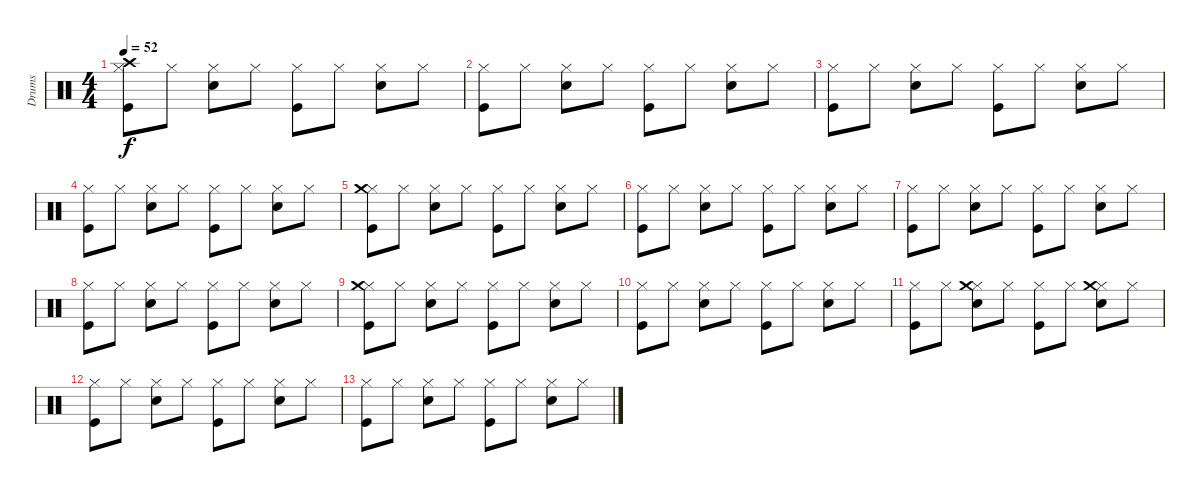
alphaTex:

\track ("Drums" "Drums") {instrument percussion}
\staff {score}
\articulation defaults
\ts (4 4)
\tempo 52
\clef neutral
\ks c
("Kick (hit)" "Hi-Hat (closed)" "Crash high (hit)").8{dy f} "Hi-Hat (closed)".8 ("Snare (hit) 2" "Hi-Hat (closed)").8 "Hi-Hat (closed)".8 ("Kick (hit)" "Hi-Hat (closed)").8 "Hi-Hat (closed)".8 ("Snare (hit) 2" "Hi-Hat (closed)").8 "Hi-Hat (closed)".8 |
("Kick (hit)" "Hi-Hat (closed)").8 "Hi-Hat (closed)".8 ("Snare (hit) 2" "Hi-Hat (closed)").8 "Hi-Hat (closed)".8 ("Kick (hit)" "Hi-Hat (closed)").8 "Hi-Hat (closed)".8 ("Snare (hit) 2" "Hi-Hat (closed)").8 "Hi-Hat (closed)".8 |
("Kick (hit)" "Hi-Hat (closed)").8 "Hi-Hat (closed)".8 ("Snare (hit) 2" "Hi-Hat (closed)").8 "Hi-Hat (closed)".8 ("Kick (hit)" "Hi-Hat (closed)").8 "Hi-Hat (closed)".8 ("Snare (hit) 2" "Hi-Hat (closed)").8 "Hi-Hat (closed)".8 |
("Kick (hit)" "Hi-Hat (closed)").8 "Hi-Hat (closed)".8 ("Snare (hit) 2" "Hi-Hat (closed)").8 "Hi-Hat (closed)".8 ("Kick (hit)" "Hi-Hat (closed)").8 "Hi-Hat (closed)".8 ("Snare (hit) 2" "Hi-Hat (closed)").8 "Hi-Hat (closed)".8 |
("Kick (hit)" "Hi-Hat (closed)" "Crash medium (hit)").8 "Hi-Hat (closed)".8 ("Snare (hit) 2" "Hi-Hat (closed)").8 "Hi-Hat (closed)".8 ("Kick (hit)" "Hi-Hat (closed)").8 "Hi-Hat (closed)".8 ("Snare (hit) 2" "Hi-Hat (closed)").8 "Hi-Hat (closed)".8 |
("Kick (hit)" "Hi-Hat (closed)").8 "Hi-Hat (closed)".8 ("Snare (hit) 2" "Hi-Hat (closed)").8 "Hi-Hat (closed)".8 ("Kick (hit)" "Hi-Hat (closed)").8 "Hi-Hat (closed)".8 ("Snare (hit) 2" "Hi-Hat (closed)").8 "Hi-Hat (closed)".8 |
("Kick (hit)" "Hi-Hat (closed)").8 "Hi-Hat (closed)".8 ("Snare (hit) 2" "Hi-Hat (closed)").8 "Hi-Hat (closed)".8 ("Kick (hit)" "Hi-Hat (closed)").8 "Hi-Hat (closed)".8 ("Snare (hit) 2" "Hi-Hat (closed)").8 "Hi-Hat (closed)".8 |
("Kick (hit)" "Hi-Hat (closed)").8 "Hi-Hat (closed)".8 ("Snare (hit) 2" "Hi-Hat (closed)").8 "Hi-Hat (closed)".8 ("Kick (hit)" "Hi-Hat (closed)").8 "Hi-Hat (closed)".8 ("Snare (hit) 2" "Hi-Hat (closed)").8 "Hi-Hat (closed)".8 |
("Kick (hit)" "Hi-Hat (closed)" "Crash medium (hit)").8 "Hi-Hat (closed)".8 ("Snare (hit) 2" "Hi-Hat (closed)").8 "Hi-Hat (closed)".8 ("Kick (hit)" "Hi-Hat (closed)").8 "Hi-Hat (closed)".8 ("Snare (hit) 2" "Hi-Hat (closed)").8 "Hi-Hat (closed)".8 |
("Kick (hit)" "Hi-Hat (closed)").8 "Hi-Hat (closed)".8 ("Snare (hit) 2" "Hi-Hat (closed)").8 "Hi-Hat (closed)".8 ("Kick (hit)" "Hi-Hat (closed)").8 "Hi-Hat (closed)".8 ("Snare (hit) 2" "Hi-Hat (closed)").8 "Hi-Hat (closed)".8 |
("Kick (hit)" "Hi-Hat (closed)").8 "Hi-Hat (closed)".8 ("Snare (hit) 2" "Hi-Hat (closed)" "Crash medium (hit)").8 "Hi-Hat (closed)".8 ("Kick (hit)" "Hi-Hat (closed)").8 "Hi-Hat (closed)".8 ("Snare (hit) 2" "Hi-Hat (closed)" "Crash medium (hit)").8 "Hi-Hat (closed)".8 |
("Kick (hit)" "Hi-Hat (closed)").8 "Hi-Hat (closed)".8 ("Snare (hit) 2" "Hi-Hat (closed)").8 "Hi-Hat (closed)".8 ("Kick (hit)" "Hi-Hat (closed)").8 "Hi-Hat (closed)".8 ("Snare (hit) 2" "Hi-Hat (closed)").8 "Hi-Hat (closed)".8 |
("Kick (hit)" "Hi-Hat (closed)").8 "Hi-Hat (closed)".8 ("Snare (hit) 2" "Hi-Hat (closed)").8 "Hi-Hat (closed)".8 ("Kick (hit)" "Hi-Hat (closed)").8 "Hi-Hat (closed)".8 ("Snare (hit) 2" "Hi-Hat (closed)").8 "Hi-Hat (closed)".8
